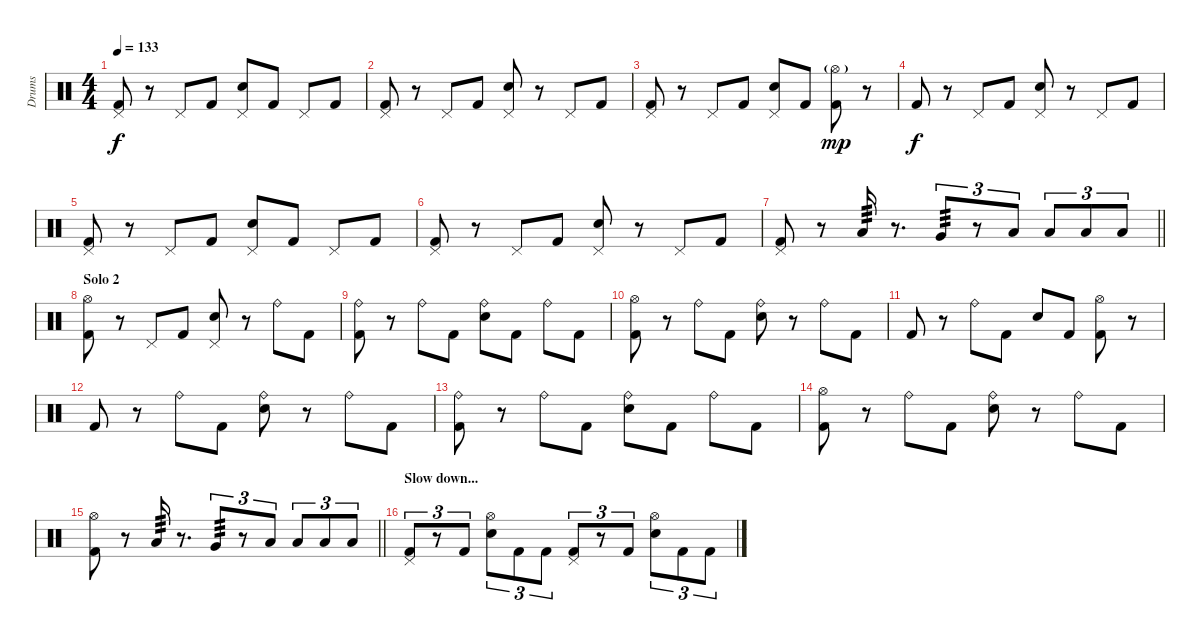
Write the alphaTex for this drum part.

\track ("Drums" "Drums") {instrument percussion}
\staff {score}
\articulation defaults
\ts (4 4)
\tempo 133
\clef neutral
\ks c
("Pedal Hi-Hat (hit)" "Kick (hit) 2").8{dy f} r.8 "Pedal Hi-Hat (hit)".8 "Kick (hit) 2".8 ("Pedal Hi-Hat (hit)" "Snare (hit) 2").8 "Kick (hit) 2".8 "Pedal Hi-Hat (hit)".8 "Kick (hit) 2".8 |
("Pedal Hi-Hat (hit)" "Kick (hit) 2").8 r.8 "Pedal Hi-Hat (hit)".8 "Kick (hit) 2".8 ("Pedal Hi-Hat (hit)" "Snare (hit) 2").8 r.8 "Pedal Hi-Hat (hit)".8 "Kick (hit) 2".8 |
("Pedal Hi-Hat (hit)" "Kick (hit) 2").8 r.8 "Pedal Hi-Hat (hit)".8 "Kick (hit) 2".8 ("Pedal Hi-Hat (hit)" "Snare (hit) 2").8 "Kick (hit) 2".8 ("Hi-Hat (open)"{g} "Kick (hit) 2").8{dy mp} r.8 |
"Kick (hit) 2".8{dy f} r.8 "Pedal Hi-Hat (hit)".8 "Kick (hit) 2".8 ("Pedal Hi-Hat (hit)" "Snare (hit) 2").8 r.8 "Pedal Hi-Hat (hit)".8 "Kick (hit) 2".8 |
("Pedal Hi-Hat (hit)" "Kick (hit) 2").8 r.8 "Pedal Hi-Hat (hit)".8 "Kick (hit) 2".8 ("Pedal Hi-Hat (hit)" "Snare (hit) 2").8 "Kick (hit) 2".8 "Pedal Hi-Hat (hit)".8 "Kick (hit) 2".8 |
("Pedal Hi-Hat (hit)" "Kick (hit) 2").8 r.8 "Pedal Hi-Hat (hit)".8 "Kick (hit) 2".8 ("Pedal Hi-Hat (hit)" "Snare (hit) 2").8 r.8 "Pedal Hi-Hat (hit)".8 "Kick (hit) 2".8 |
\barLineRight lightlight
("Pedal Hi-Hat (hit)" "Kick (hit) 2").8 r.8 "Low Tom (hit)".16{tp 3} r.8{d} "Very Low Tom (hit)".8{tu (3 2) tp 3} r.8{tu (3 2)} "Low Tom (hit)".8{tu (3 2)} "Low Tom (hit)".8{tu (3 2)} "Low Tom (hit)".8{tu (3 2)} "Low Tom (hit)".8{tu (3 2)} |
\section ("" "Solo 2")
("Hi-Hat (open)" "Kick (hit) 2").8 r.8 "Pedal Hi-Hat (hit)".8 "Kick (hit) 2".8 ("Pedal Hi-Hat (hit)" "Snare (hit) 2").8 r.8 "Ride (bell)".8 "Kick (hit) 2".8 |
("Ride (bell)" "Kick (hit) 2").8 r.8 "Ride (bell)".8 "Kick (hit) 2".8 ("Ride (bell)" "Snare (hit) 2").8 "Kick (hit) 2".8 "Ride (bell)".8 "Kick (hit) 2".8 |
("Hi-Hat (open)" "Kick (hit) 2").8 r.8 "Ride (bell)".8 "Kick (hit) 2".8 ("Ride (bell)" "Snare (hit) 2").8 r.8 "Ride (bell)".8 "Kick (hit) 2".8 |
"Kick (hit) 2".8 r.8 "Ride (bell)".8 "Kick (hit) 2".8 "Snare (hit) 2".8 "Kick (hit) 2".8 ("Hi-Hat (open)" "Kick (hit) 2").8 r.8 |
"Kick (hit) 2".8 r.8 "Ride (bell)".8 "Kick (hit) 2".8 ("Ride (bell)" "Snare (hit) 2").8 r.8 "Ride (bell)".8 "Kick (hit) 2".8 |
("Ride (bell)" "Kick (hit) 2").8 r.8 "Ride (bell)".8 "Kick (hit) 2".8 ("Ride (bell)" "Snare (hit) 2").8 "Kick (hit) 2".8 "Ride (bell)".8 "Kick (hit) 2".8 |
("Hi-Hat (open)" "Kick (hit) 2").8 r.8 "Ride (bell)".8 "Kick (hit) 2".8 ("Ride (bell)" "Snare (hit) 2").8 r.8 "Ride (bell)".8 "Kick (hit) 2".8 |
\barLineRight lightlight
("Hi-Hat (open)" "Kick (hit) 2").8 r.8 "Low Tom (hit)".16{tp 3} r.8{d} "Very Low Tom (hit)".8{tu (3 2) tp 3} r.8{tu (3 2)} "Low Tom (hit)".8{tu (3 2)} "Low Tom (hit)".8{tu (3 2)} "Low Tom (hit)".8{tu (3 2)} "Low Tom (hit)".8{tu (3 2)} |
\section ("" "Slow down...")
("Pedal Hi-Hat (hit)" "Kick (hit) 2").8{tu (3 2)} r.8{tu (3 2)} "Kick (hit) 2".8{tu (3 2)} ("Hi-Hat (open)" "Snare (hit) 2").8{tu (3 2)} "Kick (hit) 2".8{tu (3 2)} "Kick (hit) 2".8{tu (3 2)} ("Pedal Hi-Hat (hit)" "Kick (hit) 2").8{tu (3 2)} r.8{tu (3 2)} "Kick (hit) 2".8{tu (3 2)} ("Hi-Hat (open)" "Snare (hit) 2").8{tu (3 2)} "Kick (hit) 2".8{tu (3 2)} "Kick (hit) 2".8{tu (3 2)}
